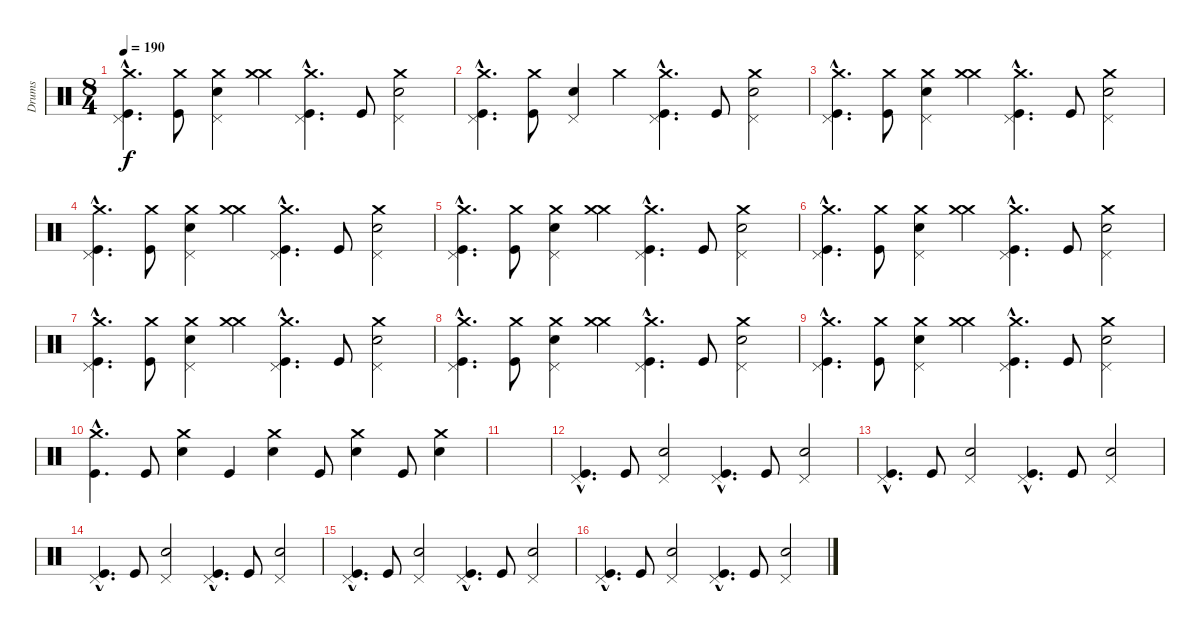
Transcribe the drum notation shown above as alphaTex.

\track ("Drums" "Drums") {instrument percussion}
\staff {score}
\articulation defaults
\ts (8 4)
\tempo 190
\clef neutral
\ks c
("Crash medium (hit)"{hac} "Pedal Hi-Hat (hit)"{hac} "Kick (hit)"{hac}).4{d dy f} ("Crash medium (hit)" "Kick (hit)").8 ("Pedal Hi-Hat (hit)" "Electric Snare (hit)" "Crash medium (hit)").4 ("Crash medium (hit)" "Crash medium (hit)").4 ("Pedal Hi-Hat (hit)"{hac} "Crash medium (hit)"{hac} "Kick (hit)"{hac}).4{d} "Kick (hit)".8 ("Pedal Hi-Hat (hit)" "Electric Snare (hit)" "Crash medium (hit)").2 |
("Crash medium (hit)"{hac} "Pedal Hi-Hat (hit)"{hac} "Kick (hit)"{hac}).4{d} ("Crash medium (hit)" "Kick (hit)").8 ("Pedal Hi-Hat (hit)" "Electric Snare (hit)").4 "Crash medium (hit)".4 ("Pedal Hi-Hat (hit)"{hac} "Crash medium (hit)"{hac} "Kick (hit)"{hac}).4{d} "Kick (hit)".8 ("Pedal Hi-Hat (hit)" "Electric Snare (hit)" "Crash medium (hit)").2 |
("Crash medium (hit)"{hac} "Pedal Hi-Hat (hit)"{hac} "Kick (hit)"{hac}).4{d} ("Crash medium (hit)" "Kick (hit)").8 ("Pedal Hi-Hat (hit)" "Electric Snare (hit)" "Crash medium (hit)").4 ("Crash medium (hit)" "Crash medium (hit)").4 ("Pedal Hi-Hat (hit)"{hac} "Crash medium (hit)"{hac} "Kick (hit)"{hac}).4{d} "Kick (hit)".8 ("Pedal Hi-Hat (hit)" "Electric Snare (hit)" "Crash medium (hit)").2 |
("Crash medium (hit)"{hac} "Pedal Hi-Hat (hit)"{hac} "Kick (hit)"{hac}).4{d} ("Crash medium (hit)" "Kick (hit)").8 ("Pedal Hi-Hat (hit)" "Electric Snare (hit)" "Crash medium (hit)").4 ("Crash medium (hit)" "Crash medium (hit)").4 ("Pedal Hi-Hat (hit)"{hac} "Crash medium (hit)"{hac} "Kick (hit)"{hac}).4{d} "Kick (hit)".8 ("Pedal Hi-Hat (hit)" "Electric Snare (hit)" "Crash medium (hit)").2 |
("Crash medium (hit)"{hac} "Pedal Hi-Hat (hit)"{hac} "Kick (hit)"{hac}).4{d} ("Crash medium (hit)" "Kick (hit)").8 ("Pedal Hi-Hat (hit)" "Electric Snare (hit)" "Crash medium (hit)").4 ("Crash medium (hit)" "Crash medium (hit)").4 ("Pedal Hi-Hat (hit)"{hac} "Crash medium (hit)"{hac} "Kick (hit)"{hac}).4{d} "Kick (hit)".8 ("Pedal Hi-Hat (hit)" "Electric Snare (hit)" "Crash medium (hit)").2 |
("Crash medium (hit)"{hac} "Pedal Hi-Hat (hit)"{hac} "Kick (hit)"{hac}).4{d} ("Crash medium (hit)" "Kick (hit)").8 ("Pedal Hi-Hat (hit)" "Electric Snare (hit)" "Crash medium (hit)").4 ("Crash medium (hit)" "Crash medium (hit)").4 ("Pedal Hi-Hat (hit)"{hac} "Crash medium (hit)"{hac} "Kick (hit)"{hac}).4{d} "Kick (hit)".8 ("Pedal Hi-Hat (hit)" "Electric Snare (hit)" "Crash medium (hit)").2 |
("Crash medium (hit)"{hac} "Pedal Hi-Hat (hit)"{hac} "Kick (hit)"{hac}).4{d} ("Crash medium (hit)" "Kick (hit)").8 ("Pedal Hi-Hat (hit)" "Electric Snare (hit)" "Crash medium (hit)").4 ("Crash medium (hit)" "Crash medium (hit)").4 ("Pedal Hi-Hat (hit)"{hac} "Crash medium (hit)"{hac} "Kick (hit)"{hac}).4{d} "Kick (hit)".8 ("Pedal Hi-Hat (hit)" "Electric Snare (hit)" "Crash medium (hit)").2 |
("Crash medium (hit)"{hac} "Pedal Hi-Hat (hit)"{hac} "Kick (hit)"{hac}).4{d} ("Crash medium (hit)" "Kick (hit)").8 ("Pedal Hi-Hat (hit)" "Electric Snare (hit)" "Crash medium (hit)").4 ("Crash medium (hit)" "Crash medium (hit)").4 ("Pedal Hi-Hat (hit)"{hac} "Crash medium (hit)"{hac} "Kick (hit)"{hac}).4{d} "Kick (hit)".8 ("Pedal Hi-Hat (hit)" "Electric Snare (hit)" "Crash medium (hit)").2 |
("Crash medium (hit)"{hac} "Pedal Hi-Hat (hit)"{hac} "Kick (hit)"{hac}).4{d} ("Crash medium (hit)" "Kick (hit)").8 ("Pedal Hi-Hat (hit)" "Electric Snare (hit)" "Crash medium (hit)").4 ("Crash medium (hit)" "Crash medium (hit)").4 ("Pedal Hi-Hat (hit)"{hac} "Crash medium (hit)"{hac} "Kick (hit)"{hac}).4{d} "Kick (hit)".8 ("Pedal Hi-Hat (hit)" "Electric Snare (hit)" "Crash medium (hit)").2 |
("Crash medium (hit)"{hac} "Kick (hit)"{hac}).4{d} "Kick (hit)".8 ("Crash medium (hit)" "Electric Snare (hit)").4 "Kick (hit)".4 ("Crash medium (hit)" "Electric Snare (hit)").4 "Kick (hit)".8 ("Crash medium (hit)" "Electric Snare (hit)").4 "Kick (hit)".8 ("Crash medium (hit)" "Electric Snare (hit)").4 |
|
("Pedal Hi-Hat (hit)"{hac} "Kick (hit)"{hac}).4{d} "Kick (hit)".8 ("Pedal Hi-Hat (hit)" "Electric Snare (hit)").2 ("Pedal Hi-Hat (hit)"{hac} "Kick (hit)"{hac}).4{d} "Kick (hit)".8 ("Pedal Hi-Hat (hit)" "Electric Snare (hit)").2 |
("Pedal Hi-Hat (hit)"{hac} "Kick (hit)"{hac}).4{d} "Kick (hit)".8 ("Pedal Hi-Hat (hit)" "Electric Snare (hit)").2 ("Pedal Hi-Hat (hit)"{hac} "Kick (hit)"{hac}).4{d} "Kick (hit)".8 ("Pedal Hi-Hat (hit)" "Electric Snare (hit)").2 |
("Pedal Hi-Hat (hit)"{hac} "Kick (hit)"{hac}).4{d} "Kick (hit)".8 ("Pedal Hi-Hat (hit)" "Electric Snare (hit)").2 ("Pedal Hi-Hat (hit)"{hac} "Kick (hit)"{hac}).4{d} "Kick (hit)".8 ("Pedal Hi-Hat (hit)" "Electric Snare (hit)").2 |
("Pedal Hi-Hat (hit)"{hac} "Kick (hit)"{hac}).4{d} "Kick (hit)".8 ("Pedal Hi-Hat (hit)" "Electric Snare (hit)").2 ("Pedal Hi-Hat (hit)"{hac} "Kick (hit)"{hac}).4{d} "Kick (hit)".8 ("Pedal Hi-Hat (hit)" "Electric Snare (hit)").2 |
("Pedal Hi-Hat (hit)"{hac} "Kick (hit)"{hac}).4{d} "Kick (hit)".8 ("Pedal Hi-Hat (hit)" "Electric Snare (hit)").2 ("Pedal Hi-Hat (hit)"{hac} "Kick (hit)"{hac}).4{d} "Kick (hit)".8 ("Pedal Hi-Hat (hit)" "Electric Snare (hit)").2
